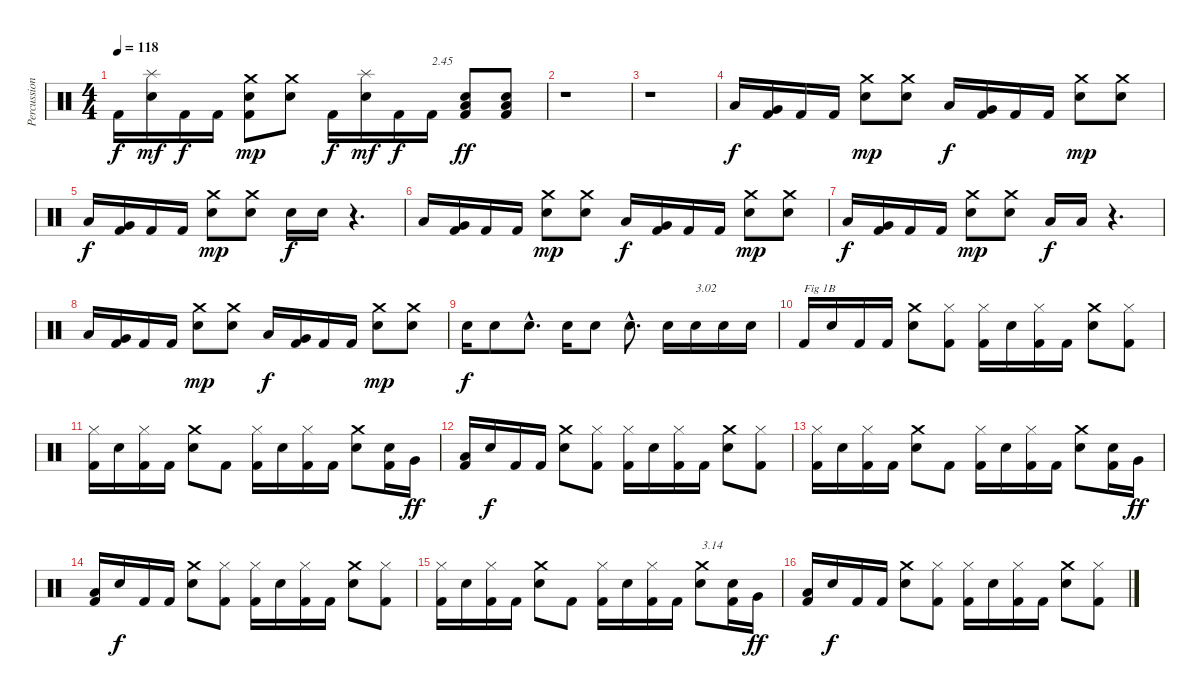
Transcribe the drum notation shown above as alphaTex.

\track ("Percussions" "Percussion") {instrument percussion}
\staff {score}
\articulation defaults
\ts (4 4)
\tempo 118
\clef neutral
\ks c "Kick (hit) 2".16{dy f}
("Electric Snare (hit)" "Splash (hit)").16{dy mf} "Kick (hit) 2".16{dy f} "Kick (hit) 2".16 ("Kick (hit) 2" "Electric Snare (hit)" "Crash medium (hit)").8{dy mp} ("Electric Snare (hit)" "Crash medium (hit)").8 "Kick (hit) 2".16{dy f} ("Electric Snare (hit)" "Splash (hit)").16{dy mf} "Kick (hit) 2".16{dy f} "Kick (hit) 2".16{txt "2.45"} ("Kick (hit) 2" "Low Floor Tom (hit)" "Electric Snare (hit)").8{dy ff} ("Kick (hit) 2" "Low Floor Tom (hit)" "Electric Snare (hit)").8 |
r.1 |
r.1 |
"Low Floor Tom (hit)".16{dy f} ("Kick (hit) 2" "Very Low Tom (hit)").16 "Kick (hit) 2".16 "Kick (hit) 2".16 ("Electric Snare (hit)" "Crash medium (hit)").8{dy mp} ("Electric Snare (hit)" "Crash medium (hit)").8 "Low Floor Tom (hit)".16{dy f} ("Kick (hit) 2" "Very Low Tom (hit)").16 "Kick (hit) 2".16 "Kick (hit) 2".16 ("Electric Snare (hit)" "Crash medium (hit)").8{dy mp} ("Electric Snare (hit)" "Crash medium (hit)").8 |
"Low Floor Tom (hit)".16{dy f} ("Kick (hit) 2" "Very Low Tom (hit)").16 "Kick (hit) 2".16 "Kick (hit) 2".16 ("Electric Snare (hit)" "Crash medium (hit)").8{dy mp} ("Electric Snare (hit)" "Crash medium (hit)").8 "Electric Snare (hit)".16{dy f} "Electric Snare (hit)".16 r.4{d} |
"Low Floor Tom (hit)".16 ("Kick (hit) 2" "Very Low Tom (hit)").16 "Kick (hit) 2".16 "Kick (hit) 2".16 ("Electric Snare (hit)" "Crash medium (hit)").8{dy mp} ("Electric Snare (hit)" "Crash medium (hit)").8 "Low Floor Tom (hit)".16{dy f} ("Kick (hit) 2" "Very Low Tom (hit)").16 "Kick (hit) 2".16 "Kick (hit) 2".16 ("Electric Snare (hit)" "Crash medium (hit)").8{dy mp} ("Electric Snare (hit)" "Crash medium (hit)").8 |
"Low Floor Tom (hit)".16{dy f} ("Kick (hit) 2" "Very Low Tom (hit)").16 "Kick (hit) 2".16 "Kick (hit) 2".16 ("Electric Snare (hit)" "Crash medium (hit)").8{dy mp} ("Electric Snare (hit)" "Crash medium (hit)").8 "Low Floor Tom (hit)".16{dy f} "Low Floor Tom (hit)".16 r.4{d} |
"Low Floor Tom (hit)".16 ("Kick (hit) 2" "Very Low Tom (hit)").16 "Kick (hit) 2".16 "Kick (hit) 2".16 ("Electric Snare (hit)" "Crash medium (hit)").8{dy mp} ("Electric Snare (hit)" "Crash medium (hit)").8 "Low Floor Tom (hit)".16{dy f} ("Kick (hit) 2" "Very Low Tom (hit)").16 "Kick (hit) 2".16 "Kick (hit) 2".16 ("Electric Snare (hit)" "Crash medium (hit)").8{dy mp} ("Electric Snare (hit)" "Crash medium (hit)").8 |
"Electric Snare (hit)".16{dy f} "Electric Snare (hit)".8 "Electric Snare (hit)"{hac}.8{d} "Electric Snare (hit)".16 "Electric Snare (hit)".8 "Electric Snare (hit)"{hac}.8{d} "Electric Snare (hit)".16 "Electric Snare (hit)".16{txt "3.02"} "Electric Snare (hit)".16 "Electric Snare (hit)".16 |
"Kick (hit) 2".16{txt "Fig 1B"} "Electric Snare (hit)".16 "Kick (hit) 2".16 "Kick (hit) 2".16 ("Electric Snare (hit)" "Crash medium (hit)").8 ("Kick (hit) 2" "Hi-Hat (closed)").8 ("Kick (hit) 2" "Hi-Hat (closed)").16 "Electric Snare (hit)".16 ("Kick (hit) 2" "Hi-Hat (closed)").16 "Kick (hit) 2".16 ("Electric Snare (hit)" "Crash medium (hit)").8 ("Kick (hit) 2" "Hi-Hat (closed)").8 |
("Kick (hit) 2" "Hi-Hat (closed)").16 "Electric Snare (hit)".16 ("Kick (hit) 2" "Hi-Hat (closed)").16 "Kick (hit) 2".16 ("Electric Snare (hit)" "Crash medium (hit)").8 "Kick (hit) 2".8 ("Kick (hit) 2" "Hi-Hat (closed)").16 "Electric Snare (hit)".16 ("Kick (hit) 2" "Hi-Hat (closed)").16 "Kick (hit) 2".16 ("Electric Snare (hit)" "Crash medium (hit)").8 ("Kick (hit) 2" "Electric Snare (hit)").16 "Very Low Tom (hit)".16{dy ff} |
("Kick (hit) 2" "Low Floor Tom (hit)").16 "Electric Snare (hit)".16{dy f} "Kick (hit) 2".16 "Kick (hit) 2".16 ("Electric Snare (hit)" "Crash medium (hit)").8 ("Kick (hit) 2" "Hi-Hat (closed)").8 ("Kick (hit) 2" "Hi-Hat (closed)").16 "Electric Snare (hit)".16 ("Kick (hit) 2" "Hi-Hat (closed)").16 "Kick (hit) 2".16 ("Electric Snare (hit)" "Crash medium (hit)").8 ("Kick (hit) 2" "Hi-Hat (closed)").8 |
("Kick (hit) 2" "Hi-Hat (closed)").16 "Electric Snare (hit)".16 ("Kick (hit) 2" "Hi-Hat (closed)").16 "Kick (hit) 2".16 ("Electric Snare (hit)" "Crash medium (hit)").8 "Kick (hit) 2".8 ("Kick (hit) 2" "Hi-Hat (closed)").16 "Electric Snare (hit)".16 ("Kick (hit) 2" "Hi-Hat (closed)").16 "Kick (hit) 2".16 ("Electric Snare (hit)" "Crash medium (hit)").8 ("Kick (hit) 2" "Electric Snare (hit)").16 "Very Low Tom (hit)".16{dy ff} |
("Kick (hit) 2" "Low Floor Tom (hit)").16 "Electric Snare (hit)".16{dy f} "Kick (hit) 2".16 "Kick (hit) 2".16 ("Electric Snare (hit)" "Crash medium (hit)").8 ("Kick (hit) 2" "Hi-Hat (closed)").8 ("Kick (hit) 2" "Hi-Hat (closed)").16 "Electric Snare (hit)".16 ("Kick (hit) 2" "Hi-Hat (closed)").16 "Kick (hit) 2".16 ("Electric Snare (hit)" "Crash medium (hit)").8 ("Kick (hit) 2" "Hi-Hat (closed)").8 |
("Kick (hit) 2" "Hi-Hat (closed)").16 "Electric Snare (hit)".16 ("Kick (hit) 2" "Hi-Hat (closed)").16 "Kick (hit) 2".16 ("Electric Snare (hit)" "Crash medium (hit)").8 "Kick (hit) 2".8 ("Kick (hit) 2" "Hi-Hat (closed)").16 "Electric Snare (hit)".16 ("Kick (hit) 2" "Hi-Hat (closed)").16 "Kick (hit) 2".16 ("Electric Snare (hit)" "Crash medium (hit)").8{txt "3.14"} ("Kick (hit) 2" "Electric Snare (hit)").16 "Very Low Tom (hit)".16{dy ff} |
("Kick (hit) 2" "Low Floor Tom (hit)").16 "Electric Snare (hit)".16{dy f} "Kick (hit) 2".16 "Kick (hit) 2".16 ("Electric Snare (hit)" "Crash medium (hit)").8 ("Kick (hit) 2" "Hi-Hat (closed)").8 ("Kick (hit) 2" "Hi-Hat (closed)").16 "Electric Snare (hit)".16 ("Kick (hit) 2" "Hi-Hat (closed)").16 "Kick (hit) 2".16 ("Electric Snare (hit)" "Crash medium (hit)").8 ("Kick (hit) 2" "Hi-Hat (closed)").8
